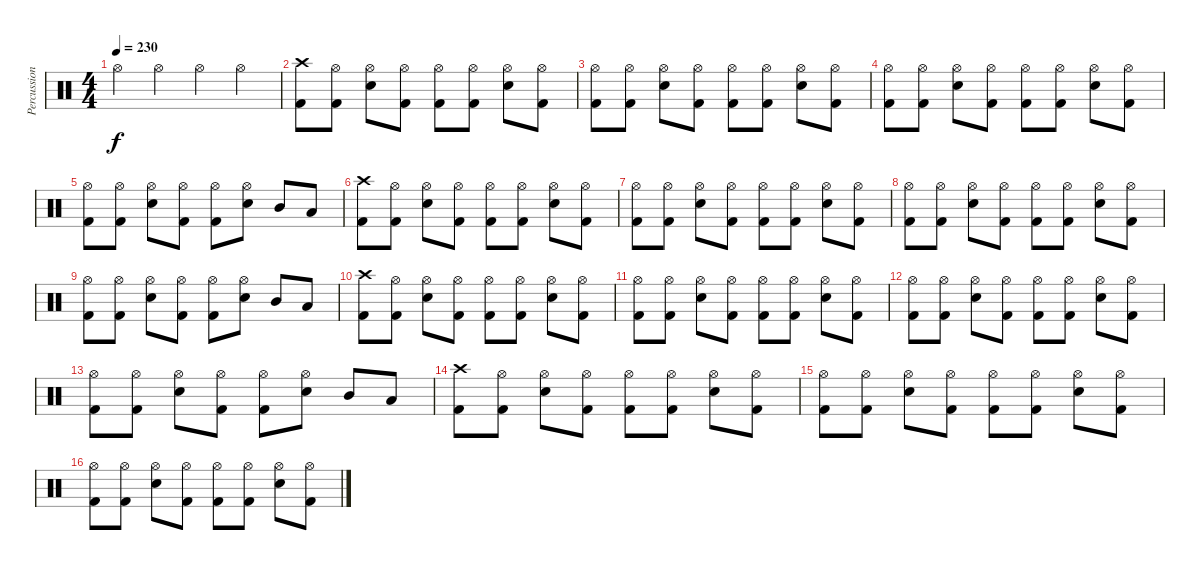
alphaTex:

\track ("Percussion" "Percussion") {instrument percussion}
\staff {score}
\articulation defaults
\ts (4 4)
\tempo 230
\clef neutral
\ks c "Hi-Hat (open)".4{dy f} "Hi-Hat (open)".4 "Hi-Hat (open)".4 "Hi-Hat (open)".4
|
("Crash high (hit)" "Kick (hit) 2").8 ("Hi-Hat (open)" "Kick (hit) 2").8 ("Hi-Hat (open)" "Snare (hit) 2").8 ("Hi-Hat (open)" "Kick (hit) 2").8 ("Hi-Hat (open)" "Kick (hit) 2").8 ("Hi-Hat (open)" "Kick (hit) 2").8 ("Hi-Hat (open)" "Snare (hit) 2").8 ("Hi-Hat (open)" "Kick (hit) 2").8 |
("Hi-Hat (open)" "Kick (hit) 2").8 ("Hi-Hat (open)" "Kick (hit) 2").8 ("Hi-Hat (open)" "Snare (hit) 2").8 ("Hi-Hat (open)" "Kick (hit) 2").8 ("Hi-Hat (open)" "Kick (hit) 2").8 ("Hi-Hat (open)" "Kick (hit) 2").8 ("Hi-Hat (open)" "Snare (hit) 2").8 ("Hi-Hat (open)" "Kick (hit) 2").8 |
("Hi-Hat (open)" "Kick (hit) 2").8 ("Hi-Hat (open)" "Kick (hit) 2").8 ("Hi-Hat (open)" "Snare (hit) 2").8 ("Hi-Hat (open)" "Kick (hit) 2").8 ("Hi-Hat (open)" "Kick (hit) 2").8 ("Hi-Hat (open)" "Kick (hit) 2").8 ("Hi-Hat (open)" "Snare (hit) 2").8 ("Hi-Hat (open)" "Kick (hit) 2").8 |
("Hi-Hat (open)" "Kick (hit) 2").8 ("Hi-Hat (open)" "Kick (hit) 2").8 ("Hi-Hat (open)" "Snare (hit) 2").8 ("Hi-Hat (open)" "Kick (hit) 2").8 ("Hi-Hat (open)" "Kick (hit) 2").8 ("Hi-Hat (open)" "Snare (hit) 2").8 "Mid Tom (hit)".8 "Low Tom (hit)".8 |
("Crash high (hit)" "Kick (hit) 2").8 ("Hi-Hat (open)" "Kick (hit) 2").8 ("Hi-Hat (open)" "Snare (hit) 2").8 ("Hi-Hat (open)" "Kick (hit) 2").8 ("Hi-Hat (open)" "Kick (hit) 2").8 ("Hi-Hat (open)" "Kick (hit) 2").8 ("Hi-Hat (open)" "Snare (hit) 2").8 ("Hi-Hat (open)" "Kick (hit) 2").8 |
("Hi-Hat (open)" "Kick (hit) 2").8 ("Hi-Hat (open)" "Kick (hit) 2").8 ("Hi-Hat (open)" "Snare (hit) 2").8 ("Hi-Hat (open)" "Kick (hit) 2").8 ("Hi-Hat (open)" "Kick (hit) 2").8 ("Hi-Hat (open)" "Kick (hit) 2").8 ("Hi-Hat (open)" "Snare (hit) 2").8 ("Hi-Hat (open)" "Kick (hit) 2").8 |
("Hi-Hat (open)" "Kick (hit) 2").8 ("Hi-Hat (open)" "Kick (hit) 2").8 ("Hi-Hat (open)" "Snare (hit) 2").8 ("Hi-Hat (open)" "Kick (hit) 2").8 ("Hi-Hat (open)" "Kick (hit) 2").8 ("Hi-Hat (open)" "Kick (hit) 2").8 ("Hi-Hat (open)" "Snare (hit) 2").8 ("Hi-Hat (open)" "Kick (hit) 2").8 |
("Hi-Hat (open)" "Kick (hit) 2").8 ("Hi-Hat (open)" "Kick (hit) 2").8 ("Hi-Hat (open)" "Snare (hit) 2").8 ("Hi-Hat (open)" "Kick (hit) 2").8 ("Hi-Hat (open)" "Kick (hit) 2").8 ("Hi-Hat (open)" "Snare (hit) 2").8 "Mid Tom (hit)".8 "Low Tom (hit)".8 |
("Crash high (hit)" "Kick (hit) 2").8 ("Hi-Hat (open)" "Kick (hit) 2").8 ("Hi-Hat (open)" "Snare (hit) 2").8 ("Hi-Hat (open)" "Kick (hit) 2").8 ("Hi-Hat (open)" "Kick (hit) 2").8 ("Hi-Hat (open)" "Kick (hit) 2").8 ("Hi-Hat (open)" "Snare (hit) 2").8 ("Hi-Hat (open)" "Kick (hit) 2").8 |
("Hi-Hat (open)" "Kick (hit) 2").8 ("Hi-Hat (open)" "Kick (hit) 2").8 ("Hi-Hat (open)" "Snare (hit) 2").8 ("Hi-Hat (open)" "Kick (hit) 2").8 ("Hi-Hat (open)" "Kick (hit) 2").8 ("Hi-Hat (open)" "Kick (hit) 2").8 ("Hi-Hat (open)" "Snare (hit) 2").8 ("Hi-Hat (open)" "Kick (hit) 2").8 |
("Hi-Hat (open)" "Kick (hit) 2").8 ("Hi-Hat (open)" "Kick (hit) 2").8 ("Hi-Hat (open)" "Snare (hit) 2").8 ("Hi-Hat (open)" "Kick (hit) 2").8 ("Hi-Hat (open)" "Kick (hit) 2").8 ("Hi-Hat (open)" "Kick (hit) 2").8 ("Hi-Hat (open)" "Snare (hit) 2").8 ("Hi-Hat (open)" "Kick (hit) 2").8 |
("Hi-Hat (open)" "Kick (hit) 2").8 ("Hi-Hat (open)" "Kick (hit) 2").8 ("Hi-Hat (open)" "Snare (hit) 2").8 ("Hi-Hat (open)" "Kick (hit) 2").8 ("Hi-Hat (open)" "Kick (hit) 2").8 ("Hi-Hat (open)" "Snare (hit) 2").8 "Mid Tom (hit)".8 "Low Tom (hit)".8 |
("Crash high (hit)" "Kick (hit) 2").8 ("Hi-Hat (open)" "Kick (hit) 2").8 ("Hi-Hat (open)" "Snare (hit) 2").8 ("Hi-Hat (open)" "Kick (hit) 2").8 ("Hi-Hat (open)" "Kick (hit) 2").8 ("Hi-Hat (open)" "Kick (hit) 2").8 ("Hi-Hat (open)" "Snare (hit) 2").8 ("Hi-Hat (open)" "Kick (hit) 2").8 |
("Hi-Hat (open)" "Kick (hit) 2").8 ("Hi-Hat (open)" "Kick (hit) 2").8 ("Hi-Hat (open)" "Snare (hit) 2").8 ("Hi-Hat (open)" "Kick (hit) 2").8 ("Hi-Hat (open)" "Kick (hit) 2").8 ("Hi-Hat (open)" "Kick (hit) 2").8 ("Hi-Hat (open)" "Snare (hit) 2").8 ("Hi-Hat (open)" "Kick (hit) 2").8 |
("Hi-Hat (open)" "Kick (hit) 2").8 ("Hi-Hat (open)" "Kick (hit) 2").8 ("Hi-Hat (open)" "Snare (hit) 2").8 ("Hi-Hat (open)" "Kick (hit) 2").8 ("Hi-Hat (open)" "Kick (hit) 2").8 ("Hi-Hat (open)" "Kick (hit) 2").8 ("Hi-Hat (open)" "Snare (hit) 2").8 ("Hi-Hat (open)" "Kick (hit) 2").8
